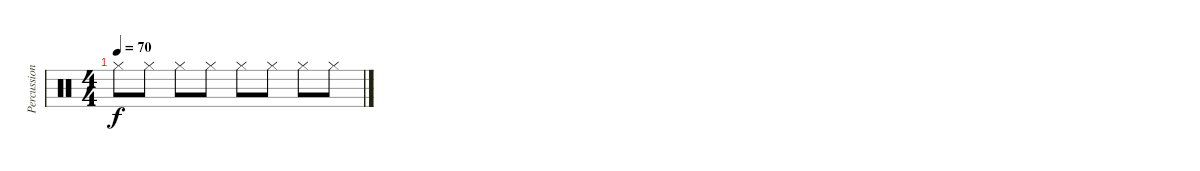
\track ("Percussioni" "Percussion") {instrument percussion}
\staff {score}
\articulation defaults
\ts (4 4)
\tempo 70
\clef neutral
\ks c "Hi-Hat (closed)".8{dy f} "Hi-Hat (closed)".8 "Hi-Hat (closed)".8 "Hi-Hat (closed)".8 "Hi-Hat (closed)".8 "Hi-Hat (closed)".8 "Hi-Hat (closed)".8 "Hi-Hat (closed)".8
